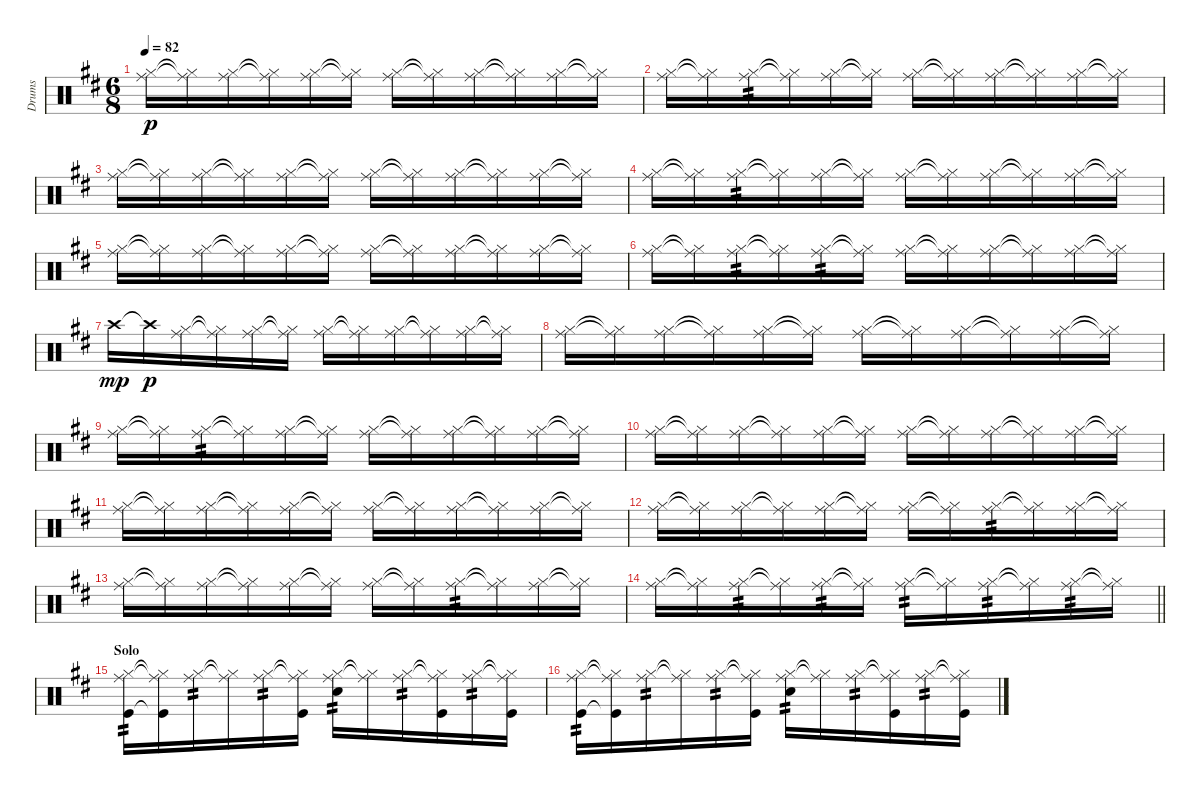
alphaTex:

\track ("Drums" "Drums") {instrument percussion}
\staff {score}
\articulation defaults
\ts (6 8)
\tempo 82
\clef neutral
\ks d
("Ride (middle)" "Hi-Hat (closed)").16{dy p} ("Ride (middle)"{t} "Hi-Hat (closed)"{t}).16 ("Ride (middle)" "Hi-Hat (closed)").16 ("Ride (middle)"{t} "Hi-Hat (closed)"{t}).16 ("Ride (middle)" "Hi-Hat (closed)").16 ("Ride (middle)"{t} "Hi-Hat (closed)"{t}).16 ("Ride (middle)" "Hi-Hat (closed)").16 ("Ride (middle)"{t} "Hi-Hat (closed)"{t}).16 ("Ride (middle)" "Hi-Hat (closed)").16 ("Ride (middle)"{t} "Hi-Hat (closed)"{t}).16 ("Ride (middle)" "Hi-Hat (closed)").16 ("Ride (middle)"{t} "Hi-Hat (closed)"{t}).16 |
("Ride (middle)" "Hi-Hat (closed)").16 ("Ride (middle)"{t} "Hi-Hat (closed)"{t}).16 ("Ride (middle)" "Hi-Hat (closed)").16{tp 2} ("Ride (middle)"{t} "Hi-Hat (closed)"{t}).16 ("Ride (middle)" "Hi-Hat (closed)").16 ("Ride (middle)"{t} "Hi-Hat (closed)"{t}).16 ("Ride (middle)" "Hi-Hat (closed)").16 ("Ride (middle)"{t} "Hi-Hat (closed)"{t}).16 ("Ride (middle)" "Hi-Hat (closed)").16 ("Ride (middle)"{t} "Hi-Hat (closed)"{t}).16 ("Ride (middle)" "Hi-Hat (closed)").16 ("Ride (middle)"{t} "Hi-Hat (closed)"{t}).16 |
("Ride (middle)" "Hi-Hat (closed)").16 ("Ride (middle)"{t} "Hi-Hat (closed)"{t}).16 ("Ride (middle)" "Hi-Hat (closed)").16 ("Ride (middle)"{t} "Hi-Hat (closed)"{t}).16 ("Ride (middle)" "Hi-Hat (closed)").16 ("Ride (middle)"{t} "Hi-Hat (closed)"{t}).16 ("Ride (middle)" "Hi-Hat (closed)").16 ("Ride (middle)"{t} "Hi-Hat (closed)"{t}).16 ("Ride (middle)" "Hi-Hat (closed)").16 ("Ride (middle)"{t} "Hi-Hat (closed)"{t}).16 ("Ride (middle)" "Hi-Hat (closed)").16 ("Ride (middle)"{t} "Hi-Hat (closed)"{t}).16 |
("Ride (middle)" "Hi-Hat (closed)").16 ("Ride (middle)"{t} "Hi-Hat (closed)"{t}).16 ("Ride (middle)" "Hi-Hat (closed)").16{tp 2} ("Ride (middle)"{t} "Hi-Hat (closed)"{t}).16 ("Ride (middle)" "Hi-Hat (closed)").16 ("Ride (middle)"{t} "Hi-Hat (closed)"{t}).16 ("Ride (middle)" "Hi-Hat (closed)").16 ("Ride (middle)"{t} "Hi-Hat (closed)"{t}).16 ("Ride (middle)" "Hi-Hat (closed)").16 ("Ride (middle)"{t} "Hi-Hat (closed)"{t}).16 ("Ride (middle)" "Hi-Hat (closed)").16 ("Ride (middle)"{t} "Hi-Hat (closed)"{t}).16 |
("Ride (middle)" "Hi-Hat (closed)").16 ("Ride (middle)"{t} "Hi-Hat (closed)"{t}).16 ("Ride (middle)" "Hi-Hat (closed)").16 ("Ride (middle)"{t} "Hi-Hat (closed)"{t}).16 ("Ride (middle)" "Hi-Hat (closed)").16 ("Ride (middle)"{t} "Hi-Hat (closed)"{t}).16 ("Ride (middle)" "Hi-Hat (closed)").16 ("Ride (middle)"{t} "Hi-Hat (closed)"{t}).16 ("Ride (middle)" "Hi-Hat (closed)").16 ("Ride (middle)"{t} "Hi-Hat (closed)"{t}).16 ("Ride (middle)" "Hi-Hat (closed)").16 ("Ride (middle)"{t} "Hi-Hat (closed)"{t}).16 |
("Ride (middle)" "Hi-Hat (closed)").16 ("Ride (middle)"{t} "Hi-Hat (closed)"{t}).16 ("Ride (middle)" "Hi-Hat (closed)").16{tp 2} ("Ride (middle)"{t} "Hi-Hat (closed)"{t}).16 ("Ride (middle)" "Hi-Hat (closed)").16{tp 2} ("Ride (middle)"{t} "Hi-Hat (closed)"{t}).16 ("Ride (middle)" "Hi-Hat (closed)").16 ("Ride (middle)"{t} "Hi-Hat (closed)"{t}).16 ("Ride (middle)" "Hi-Hat (closed)").16 ("Ride (middle)"{t} "Hi-Hat (closed)"{t}).16 ("Ride (middle)" "Hi-Hat (closed)").16 ("Ride (middle)"{t} "Hi-Hat (closed)"{t}).16 |
"Crash high (hit)".16{dy mp} "Crash high (hit)"{t}.16{dy p} ("Ride (middle)" "Hi-Hat (closed)").16 ("Ride (middle)"{t} "Hi-Hat (closed)"{t}).16 ("Ride (middle)" "Hi-Hat (closed)").16 ("Ride (middle)"{t} "Hi-Hat (closed)"{t}).16 ("Ride (middle)" "Hi-Hat (closed)").16 ("Ride (middle)"{t} "Hi-Hat (closed)"{t}).16 ("Ride (middle)" "Hi-Hat (closed)").16 ("Ride (middle)"{t} "Hi-Hat (closed)"{t}).16 ("Ride (middle)" "Hi-Hat (closed)").16 ("Ride (middle)"{t} "Hi-Hat (closed)"{t}).16 |
("Ride (middle)" "Hi-Hat (closed)").16 ("Ride (middle)"{t} "Hi-Hat (closed)"{t}).16 ("Ride (middle)" "Hi-Hat (closed)").16 ("Ride (middle)"{t} "Hi-Hat (closed)"{t}).16 ("Ride (middle)" "Hi-Hat (closed)").16 ("Ride (middle)"{t} "Hi-Hat (closed)"{t}).16 ("Ride (middle)" "Hi-Hat (closed)").16 ("Ride (middle)"{t} "Hi-Hat (closed)"{t}).16 ("Ride (middle)" "Hi-Hat (closed)").16 ("Ride (middle)"{t} "Hi-Hat (closed)"{t}).16 ("Ride (middle)" "Hi-Hat (closed)").16 ("Ride (middle)"{t} "Hi-Hat (closed)"{t}).16 |
("Ride (middle)" "Hi-Hat (closed)").16 ("Ride (middle)"{t} "Hi-Hat (closed)"{t}).16 ("Ride (middle)" "Hi-Hat (closed)").16{tp 2} ("Ride (middle)"{t} "Hi-Hat (closed)"{t}).16 ("Ride (middle)" "Hi-Hat (closed)").16 ("Ride (middle)"{t} "Hi-Hat (closed)"{t}).16 ("Ride (middle)" "Hi-Hat (closed)").16 ("Ride (middle)"{t} "Hi-Hat (closed)"{t}).16 ("Ride (middle)" "Hi-Hat (closed)").16 ("Ride (middle)"{t} "Hi-Hat (closed)"{t}).16 ("Ride (middle)" "Hi-Hat (closed)").16 ("Ride (middle)"{t} "Hi-Hat (closed)"{t}).16 |
("Ride (middle)" "Hi-Hat (closed)").16 ("Ride (middle)"{t} "Hi-Hat (closed)"{t}).16 ("Ride (middle)" "Hi-Hat (closed)").16 ("Ride (middle)"{t} "Hi-Hat (closed)"{t}).16 ("Ride (middle)" "Hi-Hat (closed)").16 ("Ride (middle)"{t} "Hi-Hat (closed)"{t}).16 ("Ride (middle)" "Hi-Hat (closed)").16 ("Ride (middle)"{t} "Hi-Hat (closed)"{t}).16 ("Ride (middle)" "Hi-Hat (closed)").16 ("Ride (middle)"{t} "Hi-Hat (closed)"{t}).16 ("Ride (middle)" "Hi-Hat (closed)").16 ("Ride (middle)"{t} "Hi-Hat (closed)"{t}).16 |
("Ride (middle)" "Hi-Hat (closed)").16 ("Ride (middle)"{t} "Hi-Hat (closed)"{t}).16 ("Ride (middle)" "Hi-Hat (closed)").16 ("Ride (middle)"{t} "Hi-Hat (closed)"{t}).16 ("Ride (middle)" "Hi-Hat (closed)").16 ("Ride (middle)"{t} "Hi-Hat (closed)"{t}).16 ("Ride (middle)" "Hi-Hat (closed)").16 ("Ride (middle)"{t} "Hi-Hat (closed)"{t}).16 ("Ride (middle)" "Hi-Hat (closed)").16 ("Ride (middle)"{t} "Hi-Hat (closed)"{t}).16 ("Ride (middle)" "Hi-Hat (closed)").16 ("Ride (middle)"{t} "Hi-Hat (closed)"{t}).16 |
("Ride (middle)" "Hi-Hat (closed)").16 ("Ride (middle)"{t} "Hi-Hat (closed)"{t}).16 ("Ride (middle)" "Hi-Hat (closed)").16 ("Ride (middle)"{t} "Hi-Hat (closed)"{t}).16 ("Ride (middle)" "Hi-Hat (closed)").16 ("Ride (middle)"{t} "Hi-Hat (closed)"{t}).16 ("Ride (middle)" "Hi-Hat (closed)").16 ("Ride (middle)"{t} "Hi-Hat (closed)"{t}).16 ("Ride (middle)" "Hi-Hat (closed)").16{tp 2} ("Ride (middle)"{t} "Hi-Hat (closed)"{t}).16 ("Ride (middle)" "Hi-Hat (closed)").16 ("Ride (middle)"{t} "Hi-Hat (closed)"{t}).16 |
("Ride (middle)" "Hi-Hat (closed)").16 ("Ride (middle)"{t} "Hi-Hat (closed)"{t}).16 ("Ride (middle)" "Hi-Hat (closed)").16 ("Ride (middle)"{t} "Hi-Hat (closed)"{t}).16 ("Ride (middle)" "Hi-Hat (closed)").16 ("Ride (middle)"{t} "Hi-Hat (closed)"{t}).16 ("Ride (middle)" "Hi-Hat (closed)").16 ("Ride (middle)"{t} "Hi-Hat (closed)"{t}).16 ("Ride (middle)" "Hi-Hat (closed)").16{tp 2} ("Ride (middle)"{t} "Hi-Hat (closed)"{t}).16 ("Ride (middle)" "Hi-Hat (closed)").16 ("Ride (middle)"{t} "Hi-Hat (closed)"{t}).16 |
\barLineRight lightlight
("Ride (middle)" "Hi-Hat (closed)").16 ("Ride (middle)"{t} "Hi-Hat (closed)"{t}).16 ("Ride (middle)" "Hi-Hat (closed)").16{tp 2} ("Ride (middle)"{t} "Hi-Hat (closed)"{t}).16 ("Ride (middle)" "Hi-Hat (closed)").16{tp 2} ("Ride (middle)"{t} "Hi-Hat (closed)"{t}).16 ("Ride (middle)" "Hi-Hat (closed)").16{tp 2} ("Ride (middle)"{t} "Hi-Hat (closed)"{t}).16 ("Ride (middle)" "Hi-Hat (closed)").16{tp 2} ("Ride (middle)"{t} "Hi-Hat (closed)"{t}).16 ("Ride (middle)" "Hi-Hat (closed)").16{tp 2} ("Ride (middle)"{t} "Hi-Hat (closed)"{t}).16 |
\section ("" "Solo")
("Ride (middle)" "Hi-Hat (closed)" "Kick (hit)").16{tp 2} ("Ride (middle)"{t} "Hi-Hat (closed)"{t} "Kick (hit)"{t}).16 ("Ride (middle)" "Hi-Hat (closed)").16{tp 2} ("Ride (middle)"{t} "Hi-Hat (closed)"{t}).16 ("Ride (middle)" "Hi-Hat (closed)").16{tp 2} ("Ride (middle)"{t} "Hi-Hat (closed)"{t} "Kick (hit)").16 ("Ride (middle)" "Hi-Hat (closed)" "Electric Snare (hit)").16{tp 2} ("Ride (middle)"{t} "Hi-Hat (closed)"{t}).16 ("Ride (middle)" "Hi-Hat (closed)").16{tp 2} ("Ride (middle)"{t} "Hi-Hat (closed)"{t} "Kick (hit)").16 ("Ride (middle)" "Hi-Hat (closed)").16{tp 2} ("Ride (middle)"{t} "Hi-Hat (closed)"{t} "Kick (hit)").16 |
("Ride (middle)" "Hi-Hat (closed)" "Kick (hit)").16{tp 2} ("Ride (middle)"{t} "Hi-Hat (closed)"{t} "Kick (hit)"{t}).16 ("Ride (middle)" "Hi-Hat (closed)").16{tp 2} ("Ride (middle)"{t} "Hi-Hat (closed)"{t}).16 ("Ride (middle)" "Hi-Hat (closed)").16{tp 2} ("Ride (middle)"{t} "Hi-Hat (closed)"{t} "Kick (hit)").16 ("Ride (middle)" "Hi-Hat (closed)" "Electric Snare (hit)").16{tp 2} ("Ride (middle)"{t} "Hi-Hat (closed)"{t}).16 ("Ride (middle)" "Hi-Hat (closed)").16{tp 2} ("Ride (middle)"{t} "Hi-Hat (closed)"{t} "Kick (hit)").16 ("Ride (middle)" "Hi-Hat (closed)").16{tp 2} ("Ride (middle)"{t} "Hi-Hat (closed)"{t} "Kick (hit)").16
